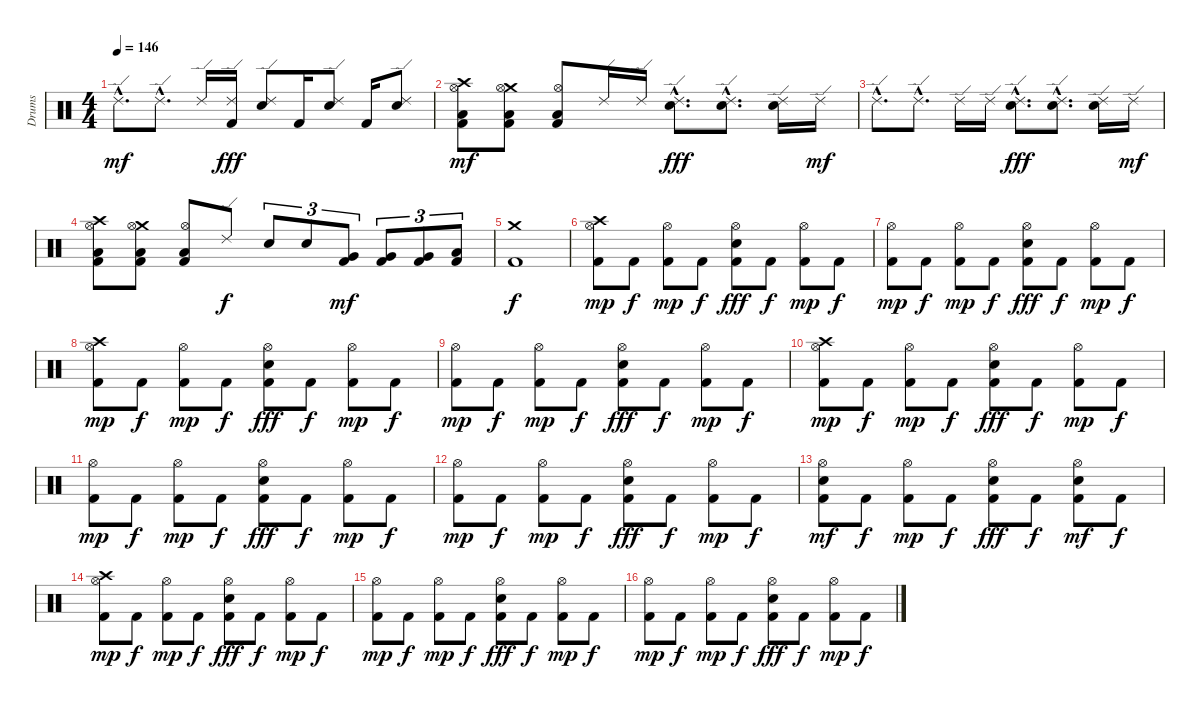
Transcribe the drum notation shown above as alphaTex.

\track ("Drums" "Drums") {instrument percussion}
\staff {score}
\articulation defaults
\ts (4 4)
\tempo 146
\clef neutral
\ks c "Ride (edge) 2"{hac}.8{d dy mf} "Ride (edge) 2"{hac}.8{d} "Ride (edge) 2".16
("Ride (edge) 2" "Kick (hit) 2").16{dy fff} ("Ride (edge) 2" "Snare (hit) 2").8 "Kick (hit) 2".16 ("Ride (edge) 2" "Snare (hit) 2").8 "Kick (hit) 2".16 ("Ride (edge) 2" "Snare (hit) 2").8 |
("Crash high (hit)" "Hi-Hat (open)" "Low Floor Tom (hit)" "Kick (hit) 2").8{dy mf} ("Crash medium (hit)" "Hi-Hat (open)" "Low Floor Tom (hit)" "Kick (hit) 2").8 ("Hi-Hat (open)" "Low Floor Tom (hit)" "Kick (hit) 2").8 "Ride (edge) 2".16 "Ride (edge) 2".16 ("Ride (edge) 2"{hac} "Snare (hit) 2"{hac}).8{d dy fff} ("Ride (edge) 2"{hac} "Snare (hit) 2"{hac}).8{d} ("Ride (edge) 2" "Snare (hit) 2").16 "Ride (edge) 2".16{dy mf} |
"Ride (edge) 2"{hac}.8{d} "Ride (edge) 2"{hac}.8{d} "Ride (edge) 2".16 "Ride (edge) 2".16 ("Ride (edge) 2"{hac} "Snare (hit) 2"{hac}).8{d dy fff} ("Ride (edge) 2"{hac} "Snare (hit) 2"{hac}).8{d} ("Ride (edge) 2" "Snare (hit) 2").16 "Ride (edge) 2".16{dy mf} |
("Crash high (hit)" "Hi-Hat (open)" "Low Floor Tom (hit)" "Kick (hit) 2").8 ("Crash medium (hit)" "Hi-Hat (open)" "Low Floor Tom (hit)" "Kick (hit) 2").8 ("Hi-Hat (open)" "Low Floor Tom (hit)" "Kick (hit) 2").8 "Ride (edge) 2".8{dy f} "Snare (hit) 2".8{tu (3 2)} "Snare (hit) 2".8{tu (3 2)} ("Very Low Tom (hit)" "Kick (hit) 2").8{tu (3 2) dy mf balance 0} ("Very Low Tom (hit)" "Kick (hit) 2").8{tu (3 2) balance 16} ("Very Low Tom (hit)" "Kick (hit) 2").8{tu (3 2)} ("Low Floor Tom (hit)" "Kick (hit) 2").8{tu (3 2) balance 8} |
("Crash medium (hit)" "Kick (hit) 2").1{dy f} |
("Crash high (hit)" "Hi-Hat (open)" "Kick (hit) 2").8{dy mp} "Kick (hit) 2".8{dy f} ("Hi-Hat (open)" "Kick (hit) 2").8{dy mp} "Kick (hit) 2".8{dy f} ("Hi-Hat (open)" "Snare (hit) 2" "Kick (hit) 2").8{dy fff} "Kick (hit) 2".8{dy f} ("Hi-Hat (open)" "Kick (hit) 2").8{dy mp} "Kick (hit) 2".8{dy f} |
("Hi-Hat (open)" "Kick (hit) 2").8{dy mp} "Kick (hit) 2".8{dy f} ("Hi-Hat (open)" "Kick (hit) 2").8{dy mp} "Kick (hit) 2".8{dy f} ("Hi-Hat (open)" "Snare (hit) 2" "Kick (hit) 2").8{dy fff} "Kick (hit) 2".8{dy f} ("Hi-Hat (open)" "Kick (hit) 2").8{dy mp} "Kick (hit) 2".8{dy f} |
("Crash high (hit)" "Hi-Hat (open)" "Kick (hit) 2").8{dy mp} "Kick (hit) 2".8{dy f} ("Hi-Hat (open)" "Kick (hit) 2").8{dy mp} "Kick (hit) 2".8{dy f} ("Hi-Hat (open)" "Snare (hit) 2" "Kick (hit) 2").8{dy fff} "Kick (hit) 2".8{dy f} ("Hi-Hat (open)" "Kick (hit) 2").8{dy mp} "Kick (hit) 2".8{dy f} |
("Hi-Hat (open)" "Kick (hit) 2").8{dy mp} "Kick (hit) 2".8{dy f} ("Hi-Hat (open)" "Kick (hit) 2").8{dy mp} "Kick (hit) 2".8{dy f} ("Hi-Hat (open)" "Snare (hit) 2" "Kick (hit) 2").8{dy fff} "Kick (hit) 2".8{dy f} ("Hi-Hat (open)" "Kick (hit) 2").8{dy mp} "Kick (hit) 2".8{dy f} |
("Crash high (hit)" "Hi-Hat (open)" "Kick (hit) 2").8{dy mp} "Kick (hit) 2".8{dy f} ("Hi-Hat (open)" "Kick (hit) 2").8{dy mp} "Kick (hit) 2".8{dy f} ("Hi-Hat (open)" "Snare (hit) 2" "Kick (hit) 2").8{dy fff} "Kick (hit) 2".8{dy f} ("Hi-Hat (open)" "Kick (hit) 2").8{dy mp} "Kick (hit) 2".8{dy f} |
("Hi-Hat (open)" "Kick (hit) 2").8{dy mp} "Kick (hit) 2".8{dy f} ("Hi-Hat (open)" "Kick (hit) 2").8{dy mp} "Kick (hit) 2".8{dy f} ("Hi-Hat (open)" "Snare (hit) 2" "Kick (hit) 2").8{dy fff} "Kick (hit) 2".8{dy f} ("Hi-Hat (open)" "Kick (hit) 2").8{dy mp} "Kick (hit) 2".8{dy f} |
("Hi-Hat (open)" "Kick (hit) 2").8{dy mp} "Kick (hit) 2".8{dy f} ("Hi-Hat (open)" "Kick (hit) 2").8{dy mp} "Kick (hit) 2".8{dy f} ("Hi-Hat (open)" "Snare (hit) 2" "Kick (hit) 2").8{dy fff} "Kick (hit) 2".8{dy f} ("Hi-Hat (open)" "Kick (hit) 2").8{dy mp} "Kick (hit) 2".8{dy f} |
("Hi-Hat (open)" "Snare (hit) 2" "Kick (hit) 2").8{dy mf} "Kick (hit) 2".8{dy f} ("Hi-Hat (open)" "Kick (hit) 2").8{dy mp} "Kick (hit) 2".8{dy f} ("Hi-Hat (open)" "Snare (hit) 2" "Kick (hit) 2").8{dy fff} "Kick (hit) 2".8{dy f} ("Hi-Hat (open)" "Snare (hit) 2" "Kick (hit) 2").8{dy mf} "Kick (hit) 2".8{dy f} |
("Crash high (hit)" "Hi-Hat (open)" "Kick (hit) 2").8{dy mp} "Kick (hit) 2".8{dy f} ("Hi-Hat (open)" "Kick (hit) 2").8{dy mp} "Kick (hit) 2".8{dy f} ("Hi-Hat (open)" "Snare (hit) 2" "Kick (hit) 2").8{dy fff} "Kick (hit) 2".8{dy f} ("Hi-Hat (open)" "Kick (hit) 2").8{dy mp} "Kick (hit) 2".8{dy f} |
("Hi-Hat (open)" "Kick (hit) 2").8{dy mp} "Kick (hit) 2".8{dy f} ("Hi-Hat (open)" "Kick (hit) 2").8{dy mp} "Kick (hit) 2".8{dy f} ("Hi-Hat (open)" "Snare (hit) 2" "Kick (hit) 2").8{dy fff} "Kick (hit) 2".8{dy f} ("Hi-Hat (open)" "Kick (hit) 2").8{dy mp} "Kick (hit) 2".8{dy f} |
("Hi-Hat (open)" "Kick (hit) 2").8{dy mp} "Kick (hit) 2".8{dy f} ("Hi-Hat (open)" "Kick (hit) 2").8{dy mp} "Kick (hit) 2".8{dy f} ("Hi-Hat (open)" "Snare (hit) 2" "Kick (hit) 2").8{dy fff} "Kick (hit) 2".8{dy f} ("Hi-Hat (open)" "Kick (hit) 2").8{dy mp} "Kick (hit) 2".8{dy f}
